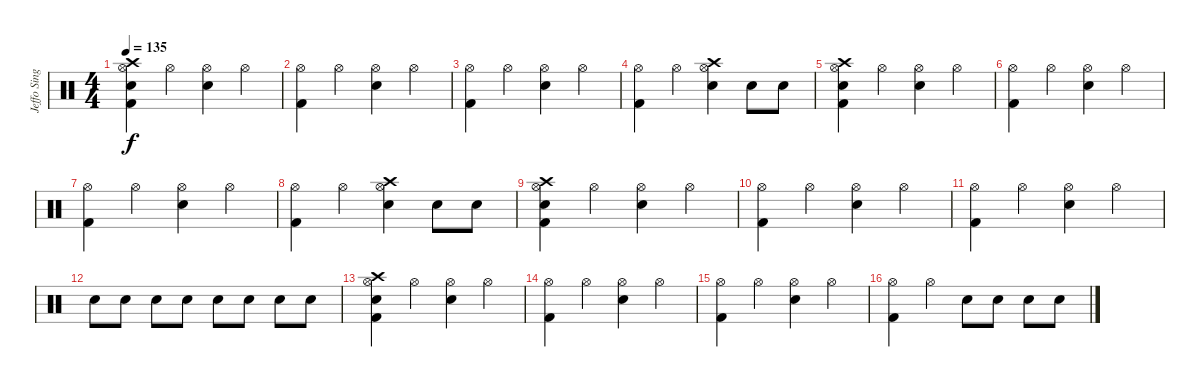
\track ("Jeffo Singer" "Jeffo Sing") {instrument percussion}
\staff {score}
\articulation defaults
\ts (4 4)
\tempo 135
\clef neutral
\ks c
("Hi-Hat (open)" "Kick (hit) 2" "Snare (hit) 2" "Crash high (hit)").4{dy f} "Hi-Hat (open)".4 ("Hi-Hat (open)" "Snare (hit) 2").4 "Hi-Hat (open)".4 |
("Hi-Hat (open)" "Kick (hit) 2").4 "Hi-Hat (open)".4 ("Hi-Hat (open)" "Snare (hit) 2").4 "Hi-Hat (open)".4 |
("Hi-Hat (open)" "Kick (hit) 2").4 "Hi-Hat (open)".4 ("Hi-Hat (open)" "Snare (hit) 2").4 "Hi-Hat (open)".4 |
("Hi-Hat (open)" "Kick (hit) 2").4 "Hi-Hat (open)".4 ("Hi-Hat (open)" "Snare (hit) 2" "Crash high (hit)").4 "Snare (hit) 2".8 "Snare (hit) 2".8 |
("Hi-Hat (open)" "Kick (hit) 2" "Snare (hit) 2" "Crash high (hit)").4 "Hi-Hat (open)".4 ("Hi-Hat (open)" "Snare (hit) 2").4 "Hi-Hat (open)".4 |
("Hi-Hat (open)" "Kick (hit) 2").4 "Hi-Hat (open)".4 ("Hi-Hat (open)" "Snare (hit) 2").4 "Hi-Hat (open)".4 |
("Hi-Hat (open)" "Kick (hit) 2").4 "Hi-Hat (open)".4 ("Hi-Hat (open)" "Snare (hit) 2").4 "Hi-Hat (open)".4 |
("Hi-Hat (open)" "Kick (hit) 2").4 "Hi-Hat (open)".4 ("Hi-Hat (open)" "Snare (hit) 2" "Crash high (hit)").4 "Snare (hit) 2".8 "Snare (hit) 2".8 |
("Hi-Hat (open)" "Kick (hit) 2" "Snare (hit) 2" "Crash high (hit)").4 "Hi-Hat (open)".4 ("Hi-Hat (open)" "Snare (hit) 2").4 "Hi-Hat (open)".4 |
("Hi-Hat (open)" "Kick (hit) 2").4 "Hi-Hat (open)".4 ("Hi-Hat (open)" "Snare (hit) 2").4 "Hi-Hat (open)".4 |
("Hi-Hat (open)" "Kick (hit) 2").4 "Hi-Hat (open)".4 ("Hi-Hat (open)" "Snare (hit) 2").4 "Hi-Hat (open)".4 |
"Snare (hit) 2".8 "Snare (hit) 2".8 "Snare (hit) 2".8 "Snare (hit) 2".8 "Snare (hit) 2".8 "Snare (hit) 2".8 "Snare (hit) 2".8 "Snare (hit) 2".8 |
("Hi-Hat (open)" "Kick (hit) 2" "Snare (hit) 2" "Crash high (hit)").4 "Hi-Hat (open)".4 ("Hi-Hat (open)" "Snare (hit) 2").4 "Hi-Hat (open)".4 |
("Hi-Hat (open)" "Kick (hit) 2").4 "Hi-Hat (open)".4 ("Hi-Hat (open)" "Snare (hit) 2").4 "Hi-Hat (open)".4 |
("Hi-Hat (open)" "Kick (hit) 2").4 "Hi-Hat (open)".4 ("Hi-Hat (open)" "Snare (hit) 2").4 "Hi-Hat (open)".4 |
("Hi-Hat (open)" "Kick (hit) 2").4 "Hi-Hat (open)".4 "Snare (hit) 2".8 "Snare (hit) 2".8 "Snare (hit) 2".8 "Snare (hit) 2".8
